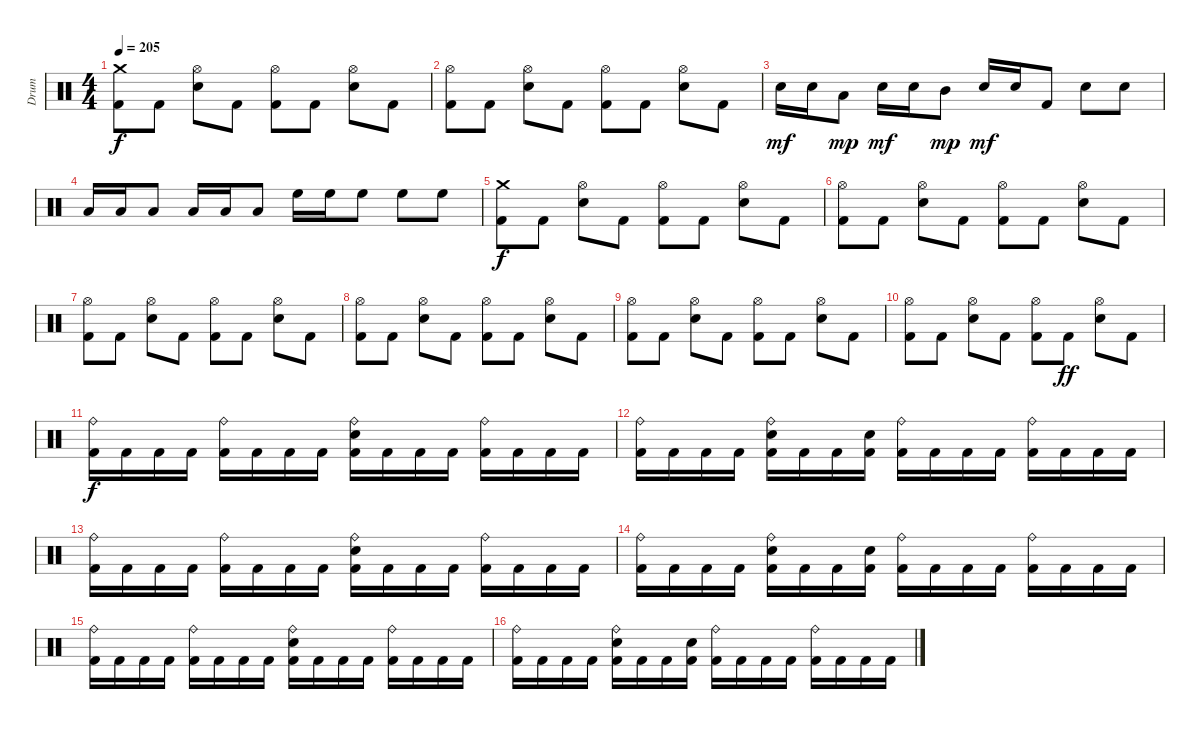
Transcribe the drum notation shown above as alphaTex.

\track ("Drum" "Drum") {instrument percussion}
\staff {score}
\articulation defaults
\ts (4 4)
\tempo 205
\clef neutral
\ks c
("Kick (hit) 2" "Crash medium (hit)").8{dy f} "Kick (hit) 2".8 ("Electric Snare (hit)" "Hi-Hat (open)").8 "Kick (hit) 2".8 ("Kick (hit) 2" "Hi-Hat (open)").8 "Kick (hit) 2".8 ("Electric Snare (hit)" "Hi-Hat (open)").8 "Kick (hit) 2".8 |
("Kick (hit) 2" "Hi-Hat (open)").8 "Kick (hit) 2".8 ("Electric Snare (hit)" "Hi-Hat (open)").8 "Kick (hit) 2".8 ("Kick (hit) 2" "Hi-Hat (open)").8 "Kick (hit) 2".8 ("Electric Snare (hit)" "Hi-Hat (open)").8 "Kick (hit) 2".8 |
"Electric Snare (hit)".16{dy mf} "Electric Snare (hit)".16 "Low Tom (hit)".8{dy mp} "Electric Snare (hit)".16{dy mf} "Electric Snare (hit)".16 "Mid Tom (hit)".8{dy mp} "Electric Snare (hit)".16{dy mf} "Electric Snare (hit)".16 "Kick (hit) 2".8 "Electric Snare (hit)".8 "Electric Snare (hit)".8 |
"Low Tom (hit)".16 "Low Tom (hit)".16 "Low Tom (hit)".8 "Low Tom (hit)".16 "Low Tom (hit)".16 "Low Tom (hit)".8 "High Floor Tom (hit)".16 "High Floor Tom (hit)".16 "High Floor Tom (hit)".8 "High Floor Tom (hit)".8 "High Floor Tom (hit)".8 |
("Kick (hit) 2" "Crash medium (hit)").8{dy f} "Kick (hit) 2".8 ("Electric Snare (hit)" "Hi-Hat (open)").8 "Kick (hit) 2".8 ("Kick (hit) 2" "Hi-Hat (open)").8 "Kick (hit) 2".8 ("Electric Snare (hit)" "Hi-Hat (open)").8 "Kick (hit) 2".8 |
("Kick (hit) 2" "Hi-Hat (open)").8 "Kick (hit) 2".8 ("Electric Snare (hit)" "Hi-Hat (open)").8 "Kick (hit) 2".8 ("Kick (hit) 2" "Hi-Hat (open)").8 "Kick (hit) 2".8 ("Electric Snare (hit)" "Hi-Hat (open)").8 "Kick (hit) 2".8 |
("Kick (hit) 2" "Hi-Hat (open)").8 "Kick (hit) 2".8 ("Electric Snare (hit)" "Hi-Hat (open)").8 "Kick (hit) 2".8 ("Kick (hit) 2" "Hi-Hat (open)").8 "Kick (hit) 2".8 ("Electric Snare (hit)" "Hi-Hat (open)").8 "Kick (hit) 2".8 |
("Kick (hit) 2" "Hi-Hat (open)").8 "Kick (hit) 2".8 ("Electric Snare (hit)" "Hi-Hat (open)").8 "Kick (hit) 2".8 ("Kick (hit) 2" "Hi-Hat (open)").8 "Kick (hit) 2".8 ("Electric Snare (hit)" "Hi-Hat (open)").8 "Kick (hit) 2".8 |
("Kick (hit) 2" "Hi-Hat (open)").8 "Kick (hit) 2".8 ("Electric Snare (hit)" "Hi-Hat (open)").8 "Kick (hit) 2".8 ("Kick (hit) 2" "Hi-Hat (open)").8 "Kick (hit) 2".8 ("Electric Snare (hit)" "Hi-Hat (open)").8 "Kick (hit) 2".8 |
("Kick (hit) 2" "Hi-Hat (open)").8 "Kick (hit) 2".8 ("Electric Snare (hit)" "Hi-Hat (open)").8 "Kick (hit) 2".8 ("Kick (hit) 2" "Hi-Hat (open)").8 "Kick (hit) 2".8{dy ff} ("Electric Snare (hit)" "Hi-Hat (open)").8 "Kick (hit) 2".8 |
("Kick (hit) 2" "Ride (bell)").16{dy f} "Kick (hit) 2".16 "Kick (hit) 2".16 "Kick (hit) 2".16 ("Kick (hit) 2" "Ride (bell)").16 "Kick (hit) 2".16 "Kick (hit) 2".16 "Kick (hit) 2".16 ("Kick (hit) 2" "Electric Snare (hit)" "Ride (bell)").16 "Kick (hit) 2".16 "Kick (hit) 2".16 "Kick (hit) 2".16 ("Kick (hit) 2" "Ride (bell)").16 "Kick (hit) 2".16 "Kick (hit) 2".16 "Kick (hit) 2".16 |
("Kick (hit) 2" "Ride (bell)").16 "Kick (hit) 2".16 "Kick (hit) 2".16 "Kick (hit) 2".16 ("Kick (hit) 2" "Electric Snare (hit)" "Ride (bell)").16 "Kick (hit) 2".16 "Kick (hit) 2".16 ("Kick (hit) 2" "Electric Snare (hit)").16 ("Kick (hit) 2" "Ride (bell)").16 "Kick (hit) 2".16 "Kick (hit) 2".16 "Kick (hit) 2".16 ("Kick (hit) 2" "Ride (bell)").16 "Kick (hit) 2".16 "Kick (hit) 2".16 "Kick (hit) 2".16 |
("Kick (hit) 2" "Ride (bell)").16 "Kick (hit) 2".16 "Kick (hit) 2".16 "Kick (hit) 2".16 ("Kick (hit) 2" "Ride (bell)").16 "Kick (hit) 2".16 "Kick (hit) 2".16 "Kick (hit) 2".16 ("Kick (hit) 2" "Electric Snare (hit)" "Ride (bell)").16 "Kick (hit) 2".16 "Kick (hit) 2".16 "Kick (hit) 2".16 ("Kick (hit) 2" "Ride (bell)").16 "Kick (hit) 2".16 "Kick (hit) 2".16 "Kick (hit) 2".16 |
("Kick (hit) 2" "Ride (bell)").16 "Kick (hit) 2".16 "Kick (hit) 2".16 "Kick (hit) 2".16 ("Kick (hit) 2" "Electric Snare (hit)" "Ride (bell)").16 "Kick (hit) 2".16 "Kick (hit) 2".16 ("Kick (hit) 2" "Electric Snare (hit)").16 ("Kick (hit) 2" "Ride (bell)").16 "Kick (hit) 2".16 "Kick (hit) 2".16 "Kick (hit) 2".16 ("Kick (hit) 2" "Ride (bell)").16 "Kick (hit) 2".16 "Kick (hit) 2".16 "Kick (hit) 2".16 |
("Kick (hit) 2" "Ride (bell)").16 "Kick (hit) 2".16 "Kick (hit) 2".16 "Kick (hit) 2".16 ("Kick (hit) 2" "Ride (bell)").16 "Kick (hit) 2".16 "Kick (hit) 2".16 "Kick (hit) 2".16 ("Kick (hit) 2" "Electric Snare (hit)" "Ride (bell)").16 "Kick (hit) 2".16 "Kick (hit) 2".16 "Kick (hit) 2".16 ("Kick (hit) 2" "Ride (bell)").16 "Kick (hit) 2".16 "Kick (hit) 2".16 "Kick (hit) 2".16 |
("Kick (hit) 2" "Ride (bell)").16 "Kick (hit) 2".16 "Kick (hit) 2".16 "Kick (hit) 2".16 ("Kick (hit) 2" "Electric Snare (hit)" "Ride (bell)").16 "Kick (hit) 2".16 "Kick (hit) 2".16 ("Kick (hit) 2" "Electric Snare (hit)").16 ("Kick (hit) 2" "Ride (bell)").16 "Kick (hit) 2".16 "Kick (hit) 2".16 "Kick (hit) 2".16 ("Kick (hit) 2" "Ride (bell)").16 "Kick (hit) 2".16 "Kick (hit) 2".16 "Kick (hit) 2".16
